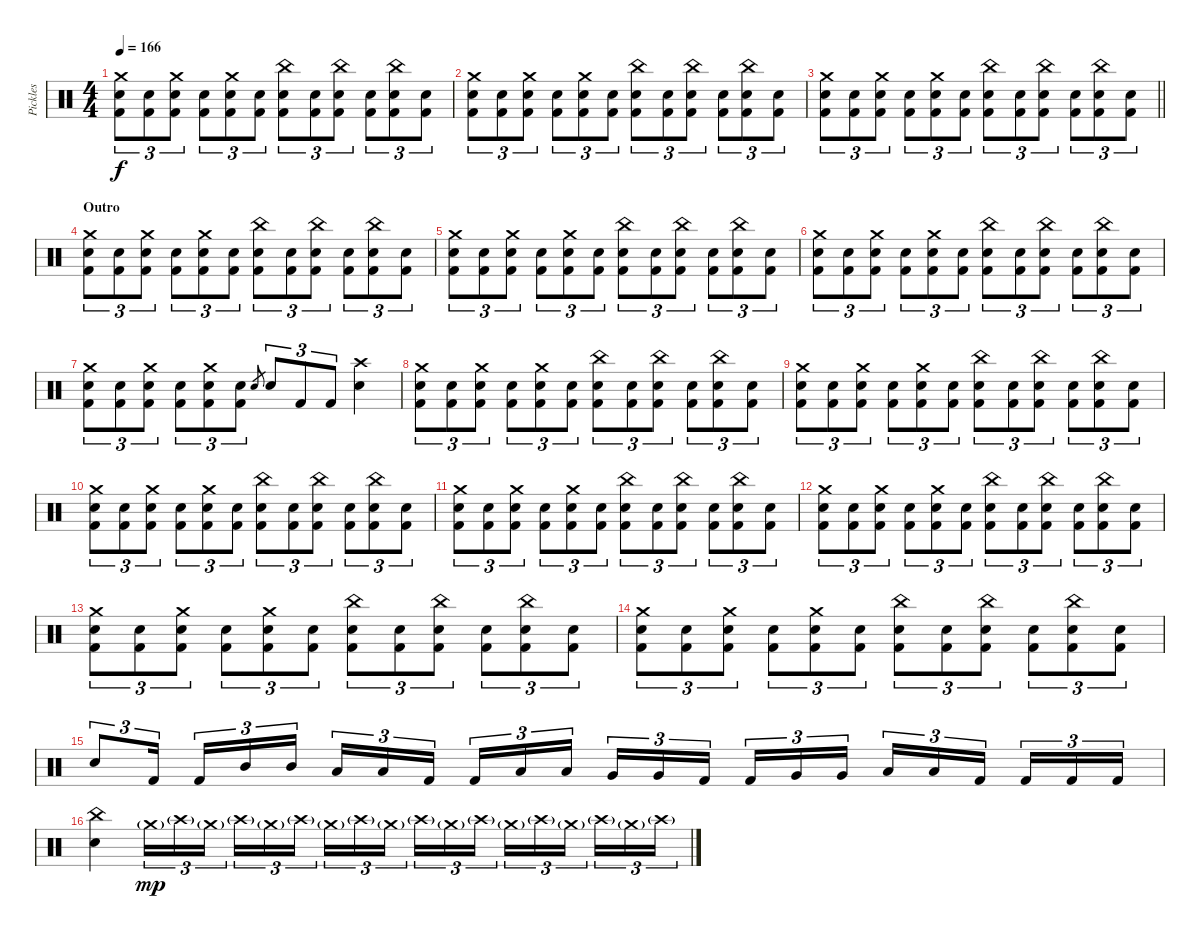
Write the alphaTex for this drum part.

\track ("Pickles" "Pickles") {instrument percussion}
\staff {score}
\articulation defaults
\ts (4 4)
\tempo 166
\clef neutral
\ks c
("Crash medium (hit)" "Snare (hit) 2" "Kick (hit) 2").8{tu (3 2) dy f} ("Snare (hit) 2" "Kick (hit) 2").8{tu (3 2)} ("Crash medium (hit)" "Snare (hit) 2" "Kick (hit) 2").8{tu (3 2)} ("Snare (hit) 2" "Kick (hit) 2").8{tu (3 2)} ("Crash medium (hit)" "Snare (hit) 2" "Kick (hit) 2").8{tu (3 2)} ("Snare (hit) 2" "Kick (hit) 2").8{tu (3 2)} ("China (hit)" "Snare (hit) 2" "Kick (hit) 2").8{tu (3 2)} ("Snare (hit) 2" "Kick (hit) 2").8{tu (3 2)} ("China (hit)" "Snare (hit) 2" "Kick (hit) 2").8{tu (3 2)} ("Snare (hit) 2" "Kick (hit) 2").8{tu (3 2)} ("China (hit)" "Snare (hit) 2" "Kick (hit) 2").8{tu (3 2)} ("Snare (hit) 2" "Kick (hit) 2").8{tu (3 2)} |
("Crash medium (hit)" "Snare (hit) 2" "Kick (hit) 2").8{tu (3 2)} ("Snare (hit) 2" "Kick (hit) 2").8{tu (3 2)} ("Crash medium (hit)" "Snare (hit) 2" "Kick (hit) 2").8{tu (3 2)} ("Snare (hit) 2" "Kick (hit) 2").8{tu (3 2)} ("Crash medium (hit)" "Snare (hit) 2" "Kick (hit) 2").8{tu (3 2)} ("Snare (hit) 2" "Kick (hit) 2").8{tu (3 2)} ("China (hit)" "Snare (hit) 2" "Kick (hit) 2").8{tu (3 2)} ("Snare (hit) 2" "Kick (hit) 2").8{tu (3 2)} ("China (hit)" "Snare (hit) 2" "Kick (hit) 2").8{tu (3 2)} ("Snare (hit) 2" "Kick (hit) 2").8{tu (3 2)} ("China (hit)" "Snare (hit) 2" "Kick (hit) 2").8{tu (3 2)} ("Snare (hit) 2" "Kick (hit) 2").8{tu (3 2)} |
\barLineRight lightlight
("Crash medium (hit)" "Snare (hit) 2" "Kick (hit) 2").8{tu (3 2)} ("Snare (hit) 2" "Kick (hit) 2").8{tu (3 2)} ("Crash medium (hit)" "Snare (hit) 2" "Kick (hit) 2").8{tu (3 2)} ("Snare (hit) 2" "Kick (hit) 2").8{tu (3 2)} ("Crash medium (hit)" "Snare (hit) 2" "Kick (hit) 2").8{tu (3 2)} ("Snare (hit) 2" "Kick (hit) 2").8{tu (3 2)} ("China (hit)" "Snare (hit) 2" "Kick (hit) 2").8{tu (3 2)} ("Snare (hit) 2" "Kick (hit) 2").8{tu (3 2)} ("China (hit)" "Snare (hit) 2" "Kick (hit) 2").8{tu (3 2)} ("Snare (hit) 2" "Kick (hit) 2").8{tu (3 2)} ("China (hit)" "Snare (hit) 2" "Kick (hit) 2").8{tu (3 2)} ("Snare (hit) 2" "Kick (hit) 2").8{tu (3 2)} |
\section ("" "Outro")
("Crash medium (hit)" "Snare (hit) 2" "Kick (hit) 2").8{tu (3 2)} ("Snare (hit) 2" "Kick (hit) 2").8{tu (3 2)} ("Crash medium (hit)" "Snare (hit) 2" "Kick (hit) 2").8{tu (3 2)} ("Snare (hit) 2" "Kick (hit) 2").8{tu (3 2)} ("Crash medium (hit)" "Snare (hit) 2" "Kick (hit) 2").8{tu (3 2)} ("Snare (hit) 2" "Kick (hit) 2").8{tu (3 2)} ("China (hit)" "Snare (hit) 2" "Kick (hit) 2").8{tu (3 2)} ("Snare (hit) 2" "Kick (hit) 2").8{tu (3 2)} ("China (hit)" "Snare (hit) 2" "Kick (hit) 2").8{tu (3 2)} ("Snare (hit) 2" "Kick (hit) 2").8{tu (3 2)} ("China (hit)" "Snare (hit) 2" "Kick (hit) 2").8{tu (3 2)} ("Snare (hit) 2" "Kick (hit) 2").8{tu (3 2)} |
("Crash medium (hit)" "Snare (hit) 2" "Kick (hit) 2").8{tu (3 2)} ("Snare (hit) 2" "Kick (hit) 2").8{tu (3 2)} ("Crash medium (hit)" "Snare (hit) 2" "Kick (hit) 2").8{tu (3 2)} ("Snare (hit) 2" "Kick (hit) 2").8{tu (3 2)} ("Crash medium (hit)" "Snare (hit) 2" "Kick (hit) 2").8{tu (3 2)} ("Snare (hit) 2" "Kick (hit) 2").8{tu (3 2)} ("China (hit)" "Snare (hit) 2" "Kick (hit) 2").8{tu (3 2)} ("Snare (hit) 2" "Kick (hit) 2").8{tu (3 2)} ("China (hit)" "Snare (hit) 2" "Kick (hit) 2").8{tu (3 2)} ("Snare (hit) 2" "Kick (hit) 2").8{tu (3 2)} ("China (hit)" "Snare (hit) 2" "Kick (hit) 2").8{tu (3 2)} ("Snare (hit) 2" "Kick (hit) 2").8{tu (3 2)} |
("Crash medium (hit)" "Snare (hit) 2" "Kick (hit) 2").8{tu (3 2)} ("Snare (hit) 2" "Kick (hit) 2").8{tu (3 2)} ("Crash medium (hit)" "Snare (hit) 2" "Kick (hit) 2").8{tu (3 2)} ("Snare (hit) 2" "Kick (hit) 2").8{tu (3 2)} ("Crash medium (hit)" "Snare (hit) 2" "Kick (hit) 2").8{tu (3 2)} ("Snare (hit) 2" "Kick (hit) 2").8{tu (3 2)} ("China (hit)" "Snare (hit) 2" "Kick (hit) 2").8{tu (3 2)} ("Snare (hit) 2" "Kick (hit) 2").8{tu (3 2)} ("China (hit)" "Snare (hit) 2" "Kick (hit) 2").8{tu (3 2)} ("Snare (hit) 2" "Kick (hit) 2").8{tu (3 2)} ("China (hit)" "Snare (hit) 2" "Kick (hit) 2").8{tu (3 2)} ("Snare (hit) 2" "Kick (hit) 2").8{tu (3 2)} |
("Crash medium (hit)" "Snare (hit) 2" "Kick (hit) 2").8{tu (3 2)} ("Snare (hit) 2" "Kick (hit) 2").8{tu (3 2)} ("Crash medium (hit)" "Snare (hit) 2" "Kick (hit) 2").8{tu (3 2)} ("Snare (hit) 2" "Kick (hit) 2").8{tu (3 2)} ("Crash medium (hit)" "Snare (hit) 2" "Kick (hit) 2").8{tu (3 2)} ("Snare (hit) 2" "Kick (hit) 2").8{tu (3 2)} "Snare (hit) 2".8{gr} "Snare (hit) 2".8{tu (3 2)} "Kick (hit) 2".8{tu (3 2)} "Kick (hit) 2".8{tu (3 2)} ("Crash high (hit)" "Snare (hit) 2").4 |
("Crash medium (hit)" "Snare (hit) 2" "Kick (hit) 2").8{tu (3 2)} ("Snare (hit) 2" "Kick (hit) 2").8{tu (3 2)} ("Crash medium (hit)" "Snare (hit) 2" "Kick (hit) 2").8{tu (3 2)} ("Snare (hit) 2" "Kick (hit) 2").8{tu (3 2)} ("Crash medium (hit)" "Snare (hit) 2" "Kick (hit) 2").8{tu (3 2)} ("Snare (hit) 2" "Kick (hit) 2").8{tu (3 2)} ("China (hit)" "Snare (hit) 2" "Kick (hit) 2").8{tu (3 2)} ("Snare (hit) 2" "Kick (hit) 2").8{tu (3 2)} ("China (hit)" "Snare (hit) 2" "Kick (hit) 2").8{tu (3 2)} ("Snare (hit) 2" "Kick (hit) 2").8{tu (3 2)} ("China (hit)" "Snare (hit) 2" "Kick (hit) 2").8{tu (3 2)} ("Snare (hit) 2" "Kick (hit) 2").8{tu (3 2)} |
("Crash medium (hit)" "Snare (hit) 2" "Kick (hit) 2").8{tu (3 2)} ("Snare (hit) 2" "Kick (hit) 2").8{tu (3 2)} ("Crash medium (hit)" "Snare (hit) 2" "Kick (hit) 2").8{tu (3 2)} ("Snare (hit) 2" "Kick (hit) 2").8{tu (3 2)} ("Crash medium (hit)" "Snare (hit) 2" "Kick (hit) 2").8{tu (3 2)} ("Snare (hit) 2" "Kick (hit) 2").8{tu (3 2)} ("China (hit)" "Snare (hit) 2" "Kick (hit) 2").8{tu (3 2)} ("Snare (hit) 2" "Kick (hit) 2").8{tu (3 2)} ("China (hit)" "Snare (hit) 2" "Kick (hit) 2").8{tu (3 2)} ("Snare (hit) 2" "Kick (hit) 2").8{tu (3 2)} ("China (hit)" "Snare (hit) 2" "Kick (hit) 2").8{tu (3 2)} ("Snare (hit) 2" "Kick (hit) 2").8{tu (3 2)} |
("Crash medium (hit)" "Snare (hit) 2" "Kick (hit) 2").8{tu (3 2)} ("Snare (hit) 2" "Kick (hit) 2").8{tu (3 2)} ("Crash medium (hit)" "Snare (hit) 2" "Kick (hit) 2").8{tu (3 2)} ("Snare (hit) 2" "Kick (hit) 2").8{tu (3 2)} ("Crash medium (hit)" "Snare (hit) 2" "Kick (hit) 2").8{tu (3 2)} ("Snare (hit) 2" "Kick (hit) 2").8{tu (3 2)} ("China (hit)" "Snare (hit) 2" "Kick (hit) 2").8{tu (3 2)} ("Snare (hit) 2" "Kick (hit) 2").8{tu (3 2)} ("China (hit)" "Snare (hit) 2" "Kick (hit) 2").8{tu (3 2)} ("Snare (hit) 2" "Kick (hit) 2").8{tu (3 2)} ("China (hit)" "Snare (hit) 2" "Kick (hit) 2").8{tu (3 2)} ("Snare (hit) 2" "Kick (hit) 2").8{tu (3 2)} |
("Crash medium (hit)" "Snare (hit) 2" "Kick (hit) 2").8{tu (3 2)} ("Snare (hit) 2" "Kick (hit) 2").8{tu (3 2)} ("Crash medium (hit)" "Snare (hit) 2" "Kick (hit) 2").8{tu (3 2)} ("Snare (hit) 2" "Kick (hit) 2").8{tu (3 2)} ("Crash medium (hit)" "Snare (hit) 2" "Kick (hit) 2").8{tu (3 2)} ("Snare (hit) 2" "Kick (hit) 2").8{tu (3 2)} ("China (hit)" "Snare (hit) 2" "Kick (hit) 2").8{tu (3 2)} ("Snare (hit) 2" "Kick (hit) 2").8{tu (3 2)} ("China (hit)" "Snare (hit) 2" "Kick (hit) 2").8{tu (3 2)} ("Snare (hit) 2" "Kick (hit) 2").8{tu (3 2)} ("China (hit)" "Snare (hit) 2" "Kick (hit) 2").8{tu (3 2)} ("Snare (hit) 2" "Kick (hit) 2").8{tu (3 2)} |
("Crash medium (hit)" "Snare (hit) 2" "Kick (hit) 2").8{tu (3 2)} ("Snare (hit) 2" "Kick (hit) 2").8{tu (3 2)} ("Crash medium (hit)" "Snare (hit) 2" "Kick (hit) 2").8{tu (3 2)} ("Snare (hit) 2" "Kick (hit) 2").8{tu (3 2)} ("Crash medium (hit)" "Snare (hit) 2" "Kick (hit) 2").8{tu (3 2)} ("Snare (hit) 2" "Kick (hit) 2").8{tu (3 2)} ("China (hit)" "Snare (hit) 2" "Kick (hit) 2").8{tu (3 2)} ("Snare (hit) 2" "Kick (hit) 2").8{tu (3 2)} ("China (hit)" "Snare (hit) 2" "Kick (hit) 2").8{tu (3 2)} ("Snare (hit) 2" "Kick (hit) 2").8{tu (3 2)} ("China (hit)" "Snare (hit) 2" "Kick (hit) 2").8{tu (3 2)} ("Snare (hit) 2" "Kick (hit) 2").8{tu (3 2)} |
("Crash medium (hit)" "Snare (hit) 2" "Kick (hit) 2").8{tu (3 2)} ("Snare (hit) 2" "Kick (hit) 2").8{tu (3 2)} ("Crash medium (hit)" "Snare (hit) 2" "Kick (hit) 2").8{tu (3 2)} ("Snare (hit) 2" "Kick (hit) 2").8{tu (3 2)} ("Crash medium (hit)" "Snare (hit) 2" "Kick (hit) 2").8{tu (3 2)} ("Snare (hit) 2" "Kick (hit) 2").8{tu (3 2)} ("China (hit)" "Snare (hit) 2" "Kick (hit) 2").8{tu (3 2)} ("Snare (hit) 2" "Kick (hit) 2").8{tu (3 2)} ("China (hit)" "Snare (hit) 2" "Kick (hit) 2").8{tu (3 2)} ("Snare (hit) 2" "Kick (hit) 2").8{tu (3 2)} ("China (hit)" "Snare (hit) 2" "Kick (hit) 2").8{tu (3 2)} ("Snare (hit) 2" "Kick (hit) 2").8{tu (3 2)} |
("Crash medium (hit)" "Snare (hit) 2" "Kick (hit) 2").8{tu (3 2)} ("Snare (hit) 2" "Kick (hit) 2").8{tu (3 2)} ("Crash medium (hit)" "Snare (hit) 2" "Kick (hit) 2").8{tu (3 2)} ("Snare (hit) 2" "Kick (hit) 2").8{tu (3 2)} ("Crash medium (hit)" "Snare (hit) 2" "Kick (hit) 2").8{tu (3 2)} ("Snare (hit) 2" "Kick (hit) 2").8{tu (3 2)} ("China (hit)" "Snare (hit) 2" "Kick (hit) 2").8{tu (3 2)} ("Snare (hit) 2" "Kick (hit) 2").8{tu (3 2)} ("China (hit)" "Snare (hit) 2" "Kick (hit) 2").8{tu (3 2)} ("Snare (hit) 2" "Kick (hit) 2").8{tu (3 2)} ("China (hit)" "Snare (hit) 2" "Kick (hit) 2").8{tu (3 2)} ("Snare (hit) 2" "Kick (hit) 2").8{tu (3 2)} |
"Snare (hit) 2".8{tu (3 2)} "Kick (hit) 2".16{tu (3 2) beam splitsecondary} "Kick (hit) 2".16{tu (3 2)} "Mid Tom (hit)".16{tu (3 2)} "Mid Tom (hit)".16{tu (3 2)} "Low Tom (hit)".16{tu (3 2)} "Low Tom (hit)".16{tu (3 2)} "Kick (hit) 2".16{tu (3 2) beam splitsecondary} "Kick (hit) 2".16{tu (3 2)} "Low Tom (hit)".16{tu (3 2)} "Low Tom (hit)".16{tu (3 2)} "Very Low Tom (hit)".16{tu (3 2)} "Very Low Tom (hit)".16{tu (3 2)} "Kick (hit) 2".16{tu (3 2) beam splitsecondary} "Kick (hit) 2".16{tu (3 2)} "Very Low Tom (hit)".16{tu (3 2)} "Very Low Tom (hit)".16{tu (3 2)} "Low Floor Tom (hit)".16{tu (3 2)} "Low Floor Tom (hit)".16{tu (3 2)} "Kick (hit) 2".16{tu (3 2) beam splitsecondary} "Kick (hit) 2".16{tu (3 2)} "Kick (hit) 2".16{tu (3 2)} "Kick (hit) 2".16{tu (3 2)} |
("China (hit)" "Snare (hit) 2").4{volume 0} "Crash medium (hit)"{g}.16{tu (3 2) dy mp} "Crash high (hit)"{g}.16{tu (3 2)} "Crash medium (hit)"{g}.16{tu (3 2) beam splitsecondary} "Crash high (hit)"{g}.16{tu (3 2)} "Crash medium (hit)"{g}.16{tu (3 2)} "Crash high (hit)"{g}.16{tu (3 2)} "Crash medium (hit)"{g}.16{tu (3 2)} "Crash high (hit)"{g}.16{tu (3 2)} "Crash medium (hit)"{g}.16{tu (3 2) beam splitsecondary} "Crash high (hit)"{g}.16{tu (3 2)} "Crash medium (hit)"{g}.16{tu (3 2)} "Crash high (hit)"{g}.16{tu (3 2)} "Crash medium (hit)"{g}.16{tu (3 2)} "Crash high (hit)"{g}.16{tu (3 2)} "Crash medium (hit)"{g}.16{tu (3 2) beam splitsecondary} "Crash high (hit)"{g}.16{tu (3 2)} "Crash medium (hit)"{g}.16{tu (3 2)} "Crash high (hit)"{g}.16{tu (3 2)}
